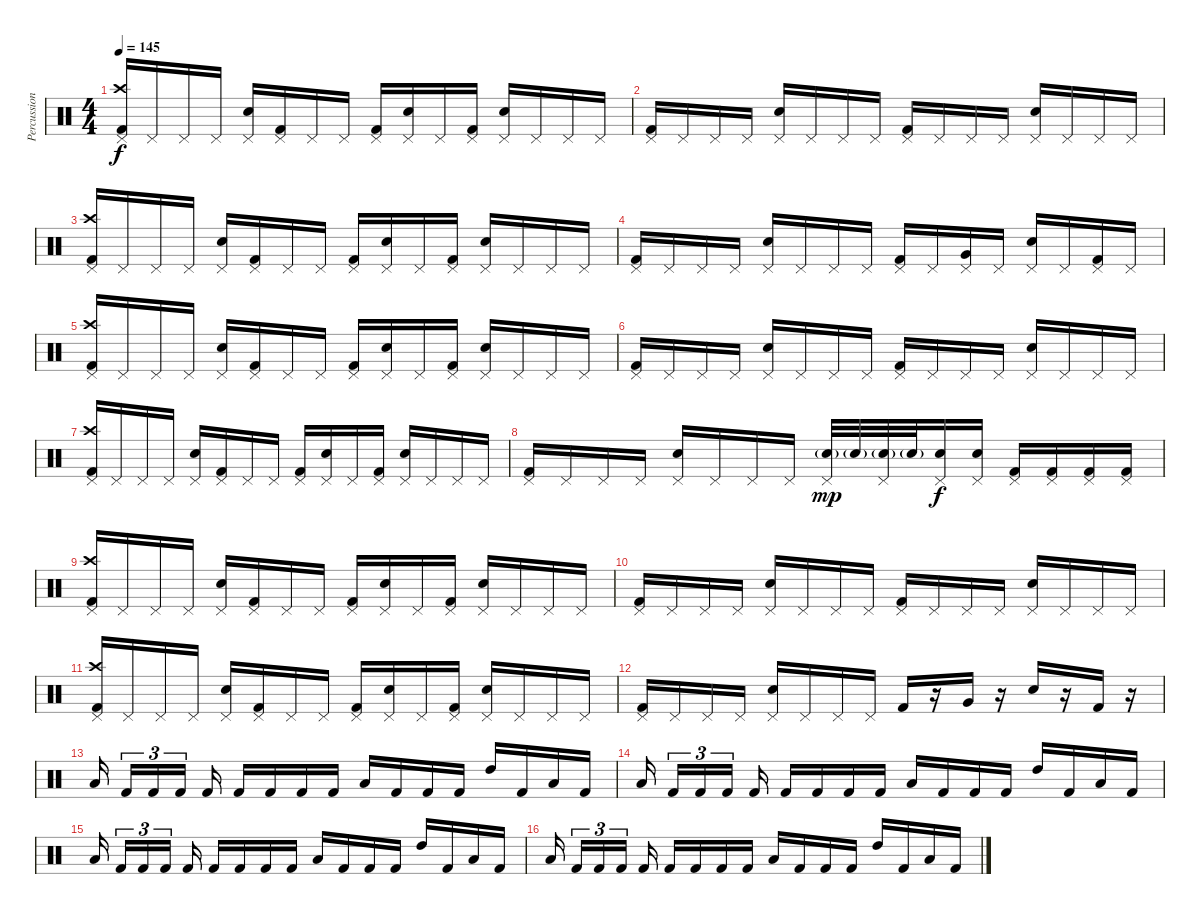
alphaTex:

\track ("Percussion" "Percussion") {instrument percussion}
\staff {score}
\articulation defaults
\ts (4 4)
\tempo 145
\clef neutral
\ks c
("Pedal Hi-Hat (hit)" "Crash high (hit)" "Kick (hit) 2").16{dy f} "Pedal Hi-Hat (hit)".16 "Pedal Hi-Hat (hit)".16 "Pedal Hi-Hat (hit)".16 ("Pedal Hi-Hat (hit)" "Electric Snare (hit)").16 ("Pedal Hi-Hat (hit)" "Kick (hit) 2").16 "Pedal Hi-Hat (hit)".16 "Pedal Hi-Hat (hit)".16 ("Pedal Hi-Hat (hit)" "Kick (hit) 2").16 ("Pedal Hi-Hat (hit)" "Electric Snare (hit)").16 "Pedal Hi-Hat (hit)".16 ("Pedal Hi-Hat (hit)" "Kick (hit) 2").16 ("Pedal Hi-Hat (hit)" "Electric Snare (hit)").16 "Pedal Hi-Hat (hit)".16 "Pedal Hi-Hat (hit)".16 "Pedal Hi-Hat (hit)".16 |
("Pedal Hi-Hat (hit)" "Kick (hit) 2").16 "Pedal Hi-Hat (hit)".16 "Pedal Hi-Hat (hit)".16 "Pedal Hi-Hat (hit)".16 ("Pedal Hi-Hat (hit)" "Electric Snare (hit)").16 "Pedal Hi-Hat (hit)".16 "Pedal Hi-Hat (hit)".16 "Pedal Hi-Hat (hit)".16 ("Pedal Hi-Hat (hit)" "Kick (hit) 2").16 "Pedal Hi-Hat (hit)".16 "Pedal Hi-Hat (hit)".16 "Pedal Hi-Hat (hit)".16 ("Pedal Hi-Hat (hit)" "Electric Snare (hit)").16 "Pedal Hi-Hat (hit)".16 "Pedal Hi-Hat (hit)".16 "Pedal Hi-Hat (hit)".16 |
("Pedal Hi-Hat (hit)" "Crash high (hit)" "Kick (hit) 2").16 "Pedal Hi-Hat (hit)".16 "Pedal Hi-Hat (hit)".16 "Pedal Hi-Hat (hit)".16 ("Pedal Hi-Hat (hit)" "Electric Snare (hit)").16 ("Pedal Hi-Hat (hit)" "Kick (hit) 2").16 "Pedal Hi-Hat (hit)".16 "Pedal Hi-Hat (hit)".16 ("Pedal Hi-Hat (hit)" "Kick (hit) 2").16 ("Pedal Hi-Hat (hit)" "Electric Snare (hit)").16 "Pedal Hi-Hat (hit)".16 ("Pedal Hi-Hat (hit)" "Kick (hit) 2").16 ("Pedal Hi-Hat (hit)" "Electric Snare (hit)").16 "Pedal Hi-Hat (hit)".16 "Pedal Hi-Hat (hit)".16 "Pedal Hi-Hat (hit)".16 |
("Pedal Hi-Hat (hit)" "Kick (hit) 2").16 "Pedal Hi-Hat (hit)".16 "Pedal Hi-Hat (hit)".16 "Pedal Hi-Hat (hit)".16 ("Pedal Hi-Hat (hit)" "Electric Snare (hit)").16 "Pedal Hi-Hat (hit)".16 "Pedal Hi-Hat (hit)".16 "Pedal Hi-Hat (hit)".16 ("Pedal Hi-Hat (hit)" "Kick (hit) 2").16 "Pedal Hi-Hat (hit)".16 ("Pedal Hi-Hat (hit)" "Very Low Tom (hit)").16 "Pedal Hi-Hat (hit)".16 ("Pedal Hi-Hat (hit)" "Electric Snare (hit)").16 "Pedal Hi-Hat (hit)".16 ("Pedal Hi-Hat (hit)" "Kick (hit) 2").16 "Pedal Hi-Hat (hit)".16 |
("Pedal Hi-Hat (hit)" "Crash high (hit)" "Kick (hit) 2").16 "Pedal Hi-Hat (hit)".16 "Pedal Hi-Hat (hit)".16 "Pedal Hi-Hat (hit)".16 ("Pedal Hi-Hat (hit)" "Electric Snare (hit)").16 ("Pedal Hi-Hat (hit)" "Kick (hit) 2").16 "Pedal Hi-Hat (hit)".16 "Pedal Hi-Hat (hit)".16 ("Pedal Hi-Hat (hit)" "Kick (hit) 2").16 ("Pedal Hi-Hat (hit)" "Electric Snare (hit)").16 "Pedal Hi-Hat (hit)".16 ("Pedal Hi-Hat (hit)" "Kick (hit) 2").16 ("Pedal Hi-Hat (hit)" "Electric Snare (hit)").16 "Pedal Hi-Hat (hit)".16 "Pedal Hi-Hat (hit)".16 "Pedal Hi-Hat (hit)".16 |
("Pedal Hi-Hat (hit)" "Kick (hit) 2").16 "Pedal Hi-Hat (hit)".16 "Pedal Hi-Hat (hit)".16 "Pedal Hi-Hat (hit)".16 ("Pedal Hi-Hat (hit)" "Electric Snare (hit)").16 "Pedal Hi-Hat (hit)".16 "Pedal Hi-Hat (hit)".16 "Pedal Hi-Hat (hit)".16 ("Pedal Hi-Hat (hit)" "Kick (hit) 2").16 "Pedal Hi-Hat (hit)".16 "Pedal Hi-Hat (hit)".16 "Pedal Hi-Hat (hit)".16 ("Pedal Hi-Hat (hit)" "Electric Snare (hit)").16 "Pedal Hi-Hat (hit)".16 "Pedal Hi-Hat (hit)".16 "Pedal Hi-Hat (hit)".16 |
("Pedal Hi-Hat (hit)" "Crash high (hit)" "Kick (hit) 2").16 "Pedal Hi-Hat (hit)".16 "Pedal Hi-Hat (hit)".16 "Pedal Hi-Hat (hit)".16 ("Pedal Hi-Hat (hit)" "Electric Snare (hit)").16 ("Pedal Hi-Hat (hit)" "Kick (hit) 2").16 "Pedal Hi-Hat (hit)".16 "Pedal Hi-Hat (hit)".16 ("Pedal Hi-Hat (hit)" "Kick (hit) 2").16 ("Pedal Hi-Hat (hit)" "Electric Snare (hit)").16 "Pedal Hi-Hat (hit)".16 ("Pedal Hi-Hat (hit)" "Kick (hit) 2").16 ("Pedal Hi-Hat (hit)" "Electric Snare (hit)").16 "Pedal Hi-Hat (hit)".16 "Pedal Hi-Hat (hit)".16 "Pedal Hi-Hat (hit)".16 |
("Pedal Hi-Hat (hit)" "Kick (hit) 2").16 "Pedal Hi-Hat (hit)".16 "Pedal Hi-Hat (hit)".16 "Pedal Hi-Hat (hit)".16 ("Pedal Hi-Hat (hit)" "Electric Snare (hit)").16 "Pedal Hi-Hat (hit)".16 "Pedal Hi-Hat (hit)".16 "Pedal Hi-Hat (hit)".16 ("Pedal Hi-Hat (hit)" "Electric Snare (hit)"{g}).32{dy mp} "Electric Snare (hit)"{g}.32 ("Pedal Hi-Hat (hit)" "Electric Snare (hit)"{g}).32 "Electric Snare (hit)"{g}.32 ("Pedal Hi-Hat (hit)" "Electric Snare (hit)").16{dy f} ("Pedal Hi-Hat (hit)" "Electric Snare (hit)").16 ("Pedal Hi-Hat (hit)" "Kick (hit) 2").16 ("Pedal Hi-Hat (hit)" "Kick (hit) 2").16 ("Pedal Hi-Hat (hit)" "Kick (hit) 2").16 ("Pedal Hi-Hat (hit)" "Kick (hit) 2").16 |
("Pedal Hi-Hat (hit)" "Crash high (hit)" "Kick (hit) 2").16 "Pedal Hi-Hat (hit)".16 "Pedal Hi-Hat (hit)".16 "Pedal Hi-Hat (hit)".16 ("Pedal Hi-Hat (hit)" "Electric Snare (hit)").16 ("Pedal Hi-Hat (hit)" "Kick (hit) 2").16 "Pedal Hi-Hat (hit)".16 "Pedal Hi-Hat (hit)".16 ("Pedal Hi-Hat (hit)" "Kick (hit) 2").16 ("Pedal Hi-Hat (hit)" "Electric Snare (hit)").16 "Pedal Hi-Hat (hit)".16 ("Pedal Hi-Hat (hit)" "Kick (hit) 2").16 ("Pedal Hi-Hat (hit)" "Electric Snare (hit)").16 "Pedal Hi-Hat (hit)".16 "Pedal Hi-Hat (hit)".16 "Pedal Hi-Hat (hit)".16 |
("Pedal Hi-Hat (hit)" "Kick (hit) 2").16 "Pedal Hi-Hat (hit)".16 "Pedal Hi-Hat (hit)".16 "Pedal Hi-Hat (hit)".16 ("Pedal Hi-Hat (hit)" "Electric Snare (hit)").16 "Pedal Hi-Hat (hit)".16 "Pedal Hi-Hat (hit)".16 "Pedal Hi-Hat (hit)".16 ("Pedal Hi-Hat (hit)" "Kick (hit) 2").16 "Pedal Hi-Hat (hit)".16 "Pedal Hi-Hat (hit)".16 "Pedal Hi-Hat (hit)".16 ("Pedal Hi-Hat (hit)" "Electric Snare (hit)").16 "Pedal Hi-Hat (hit)".16 "Pedal Hi-Hat (hit)".16 "Pedal Hi-Hat (hit)".16 |
("Pedal Hi-Hat (hit)" "Crash high (hit)" "Kick (hit) 2").16 "Pedal Hi-Hat (hit)".16 "Pedal Hi-Hat (hit)".16 "Pedal Hi-Hat (hit)".16 ("Pedal Hi-Hat (hit)" "Electric Snare (hit)").16 ("Pedal Hi-Hat (hit)" "Kick (hit) 2").16 "Pedal Hi-Hat (hit)".16 "Pedal Hi-Hat (hit)".16 ("Pedal Hi-Hat (hit)" "Kick (hit) 2").16 ("Pedal Hi-Hat (hit)" "Electric Snare (hit)").16 "Pedal Hi-Hat (hit)".16 ("Pedal Hi-Hat (hit)" "Kick (hit) 2").16 ("Pedal Hi-Hat (hit)" "Electric Snare (hit)").16 "Pedal Hi-Hat (hit)".16 "Pedal Hi-Hat (hit)".16 "Pedal Hi-Hat (hit)".16 |
("Pedal Hi-Hat (hit)" "Kick (hit) 2").16 "Pedal Hi-Hat (hit)".16 "Pedal Hi-Hat (hit)".16 "Pedal Hi-Hat (hit)".16 ("Pedal Hi-Hat (hit)" "Electric Snare (hit)").16 "Pedal Hi-Hat (hit)".16 "Pedal Hi-Hat (hit)".16 "Pedal Hi-Hat (hit)".16 "Kick (hit) 2".16 r.16 "Very Low Tom (hit)".16 r.16 "Electric Snare (hit)".16 r.16 "Kick (hit) 2".16 r.16 |
"Low Tom (hit)".16 "Kick (hit) 2".16{tu (3 2)} "Kick (hit) 2".16{tu (3 2)} "Kick (hit) 2".16{tu (3 2)} "Kick (hit) 2".16 "Kick (hit) 2".16 "Kick (hit) 2".16 "Kick (hit) 2".16 "Kick (hit) 2".16 "Low Tom (hit)".16 "Kick (hit) 2".16 "Kick (hit) 2".16 "Kick (hit) 2".16 "High Tom (hit)".16 "Kick (hit) 2".16 "Low Tom (hit)".16 "Kick (hit) 2".16 |
"Low Tom (hit)".16 "Kick (hit) 2".16{tu (3 2)} "Kick (hit) 2".16{tu (3 2)} "Kick (hit) 2".16{tu (3 2)} "Kick (hit) 2".16 "Kick (hit) 2".16 "Kick (hit) 2".16 "Kick (hit) 2".16 "Kick (hit) 2".16 "Low Tom (hit)".16 "Kick (hit) 2".16 "Kick (hit) 2".16 "Kick (hit) 2".16 "High Tom (hit)".16 "Kick (hit) 2".16 "Low Tom (hit)".16 "Kick (hit) 2".16 |
"Low Tom (hit)".16 "Kick (hit) 2".16{tu (3 2)} "Kick (hit) 2".16{tu (3 2)} "Kick (hit) 2".16{tu (3 2)} "Kick (hit) 2".16 "Kick (hit) 2".16 "Kick (hit) 2".16 "Kick (hit) 2".16 "Kick (hit) 2".16 "Low Tom (hit)".16 "Kick (hit) 2".16 "Kick (hit) 2".16 "Kick (hit) 2".16 "High Tom (hit)".16 "Kick (hit) 2".16 "Low Tom (hit)".16 "Kick (hit) 2".16 |
"Low Tom (hit)".16 "Kick (hit) 2".16{tu (3 2)} "Kick (hit) 2".16{tu (3 2)} "Kick (hit) 2".16{tu (3 2)} "Kick (hit) 2".16 "Kick (hit) 2".16 "Kick (hit) 2".16 "Kick (hit) 2".16 "Kick (hit) 2".16 "Low Tom (hit)".16 "Kick (hit) 2".16 "Kick (hit) 2".16 "Kick (hit) 2".16 "High Tom (hit)".16 "Kick (hit) 2".16 "Low Tom (hit)".16 "Kick (hit) 2".16
